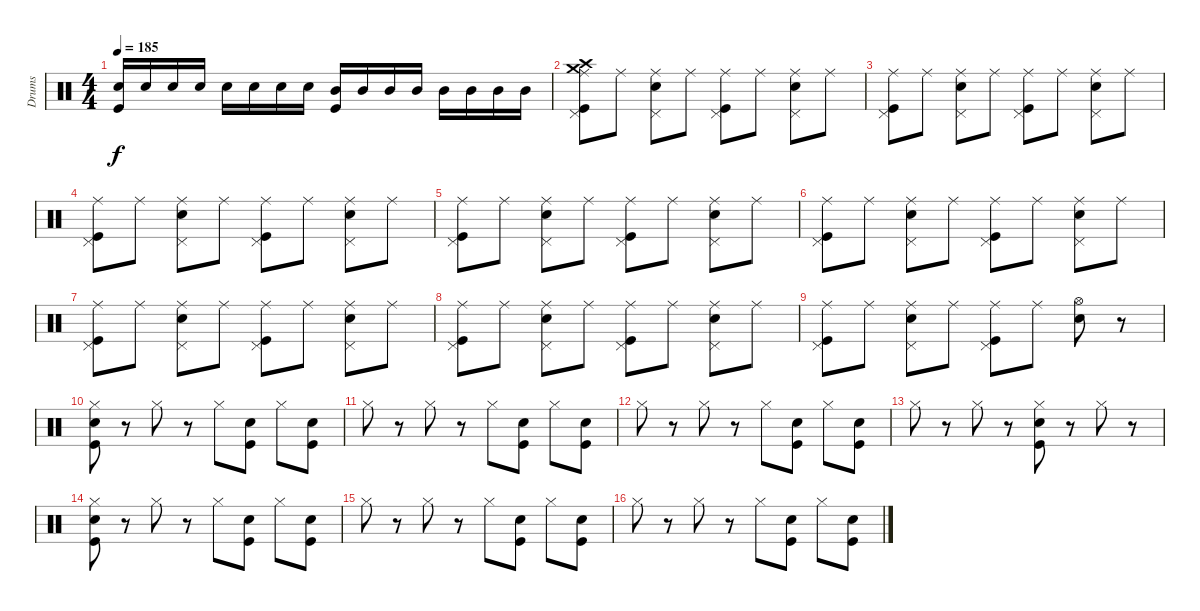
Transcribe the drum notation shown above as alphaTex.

\track ("Drums" "Drums") {instrument percussion}
\staff {score}
\articulation defaults
\ts (4 4)
\tempo 185
\clef neutral
\ks c
("Kick (hit)" "Electric Snare (hit)").16{dy f} "Electric Snare (hit)".16 "Electric Snare (hit)".16 "Electric Snare (hit)".16 "Electric Snare (hit)".16 "Electric Snare (hit)".16 "Electric Snare (hit)".16 "Electric Snare (hit)".16 ("Mid Tom (hit)" "Kick (hit)").16 "Mid Tom (hit)".16 "Mid Tom (hit)".16 "Mid Tom (hit)".16 "Mid Tom (hit)".16 "Mid Tom (hit)".16 "Mid Tom (hit)".16 "Mid Tom (hit)".16 |
("Crash high (hit)" "Crash medium (hit)" "Pedal Hi-Hat (hit)" "Ride (middle)" "Kick (hit)").8 "Ride (middle)".8 ("Pedal Hi-Hat (hit)" "Ride (middle)" "Electric Snare (hit)").8 "Ride (middle)".8 ("Pedal Hi-Hat (hit)" "Ride (middle)" "Kick (hit)").8 "Ride (middle)".8 ("Pedal Hi-Hat (hit)" "Ride (middle)" "Electric Snare (hit)").8 "Ride (middle)".8 |
("Kick (hit)" "Pedal Hi-Hat (hit)" "Ride (middle)").8 "Ride (middle)".8 ("Electric Snare (hit)" "Pedal Hi-Hat (hit)" "Ride (middle)").8 "Ride (middle)".8 ("Kick (hit)" "Pedal Hi-Hat (hit)" "Ride (middle)").8 "Ride (middle)".8 ("Pedal Hi-Hat (hit)" "Ride (middle)" "Electric Snare (hit)").8 "Ride (middle)".8 |
("Kick (hit)" "Pedal Hi-Hat (hit)" "Ride (middle)").8 "Ride (middle)".8 ("Pedal Hi-Hat (hit)" "Ride (middle)" "Electric Snare (hit)").8 "Ride (middle)".8 ("Kick (hit)" "Pedal Hi-Hat (hit)" "Ride (middle)").8 "Ride (middle)".8 ("Pedal Hi-Hat (hit)" "Ride (middle)" "Electric Snare (hit)").8 "Ride (middle)".8 |
("Kick (hit)" "Pedal Hi-Hat (hit)" "Ride (middle)").8 "Ride (middle)".8 ("Pedal Hi-Hat (hit)" "Ride (middle)" "Electric Snare (hit)").8 "Ride (middle)".8 ("Kick (hit)" "Pedal Hi-Hat (hit)" "Ride (middle)").8 "Ride (middle)".8 ("Pedal Hi-Hat (hit)" "Ride (middle)" "Electric Snare (hit)").8 "Ride (middle)".8 |
("Kick (hit)" "Pedal Hi-Hat (hit)" "Ride (middle)").8 "Ride (middle)".8 ("Pedal Hi-Hat (hit)" "Ride (middle)" "Electric Snare (hit)").8 "Ride (middle)".8 ("Kick (hit)" "Pedal Hi-Hat (hit)" "Ride (middle)").8 "Ride (middle)".8 ("Pedal Hi-Hat (hit)" "Ride (middle)" "Electric Snare (hit)").8 "Ride (middle)".8 |
("Kick (hit)" "Pedal Hi-Hat (hit)" "Ride (middle)").8 "Ride (middle)".8 ("Pedal Hi-Hat (hit)" "Ride (middle)" "Electric Snare (hit)").8 "Ride (middle)".8 ("Kick (hit)" "Pedal Hi-Hat (hit)" "Ride (middle)").8 "Ride (middle)".8 ("Pedal Hi-Hat (hit)" "Ride (middle)" "Electric Snare (hit)").8 "Ride (middle)".8 |
("Kick (hit)" "Pedal Hi-Hat (hit)" "Ride (middle)").8 "Ride (middle)".8 ("Pedal Hi-Hat (hit)" "Ride (middle)" "Electric Snare (hit)").8 "Ride (middle)".8 ("Kick (hit)" "Pedal Hi-Hat (hit)" "Ride (middle)").8 "Ride (middle)".8 ("Pedal Hi-Hat (hit)" "Ride (middle)" "Electric Snare (hit)").8 "Ride (middle)".8 |
("Kick (hit)" "Pedal Hi-Hat (hit)" "Ride (middle)").8 "Ride (middle)".8 ("Pedal Hi-Hat (hit)" "Ride (middle)" "Electric Snare (hit)").8 "Ride (middle)".8 ("Pedal Hi-Hat (hit)" "Kick (hit)" "Ride (middle)").8 "Ride (middle)".8 ("Hi-Hat (open)" "Electric Snare (hit)").8 r.8 |
("Electric Snare (hit)" "Kick (hit)" "Hi-Hat (closed)").8 r.8 "Hi-Hat (closed)".8 r.8 "Hi-Hat (closed)".8 ("Kick (hit)" "Electric Snare (hit)").8 "Hi-Hat (closed)".8 ("Electric Snare (hit)" "Kick (hit)").8 |
"Hi-Hat (closed)".8 r.8 "Hi-Hat (closed)".8 r.8 "Hi-Hat (closed)".8 ("Kick (hit)" "Electric Snare (hit)").8 "Hi-Hat (closed)".8 ("Electric Snare (hit)" "Kick (hit)").8 |
"Hi-Hat (closed)".8 r.8 "Hi-Hat (closed)".8 r.8 "Hi-Hat (closed)".8 ("Kick (hit)" "Electric Snare (hit)").8 "Hi-Hat (closed)".8 ("Kick (hit)" "Electric Snare (hit)").8 |
"Hi-Hat (closed)".8 r.8 "Hi-Hat (closed)".8 r.8 ("Kick (hit)" "Electric Snare (hit)" "Hi-Hat (closed)").8 r.8 "Hi-Hat (closed)".8 r.8 |
("Hi-Hat (closed)" "Electric Snare (hit)" "Kick (hit)").8 r.8 "Hi-Hat (closed)".8 r.8 "Hi-Hat (closed)".8 ("Kick (hit)" "Electric Snare (hit)").8 "Hi-Hat (closed)".8 ("Kick (hit)" "Electric Snare (hit)").8 |
"Hi-Hat (closed)".8 r.8 "Hi-Hat (closed)".8 r.8 "Hi-Hat (closed)".8 ("Kick (hit)" "Electric Snare (hit)").8 "Hi-Hat (closed)".8 ("Kick (hit)" "Electric Snare (hit)").8 |
"Hi-Hat (closed)".8 r.8 "Hi-Hat (closed)".8 r.8 "Hi-Hat (closed)".8 ("Kick (hit)" "Electric Snare (hit)").8 "Hi-Hat (closed)".8 ("Kick (hit)" "Electric Snare (hit)").8
